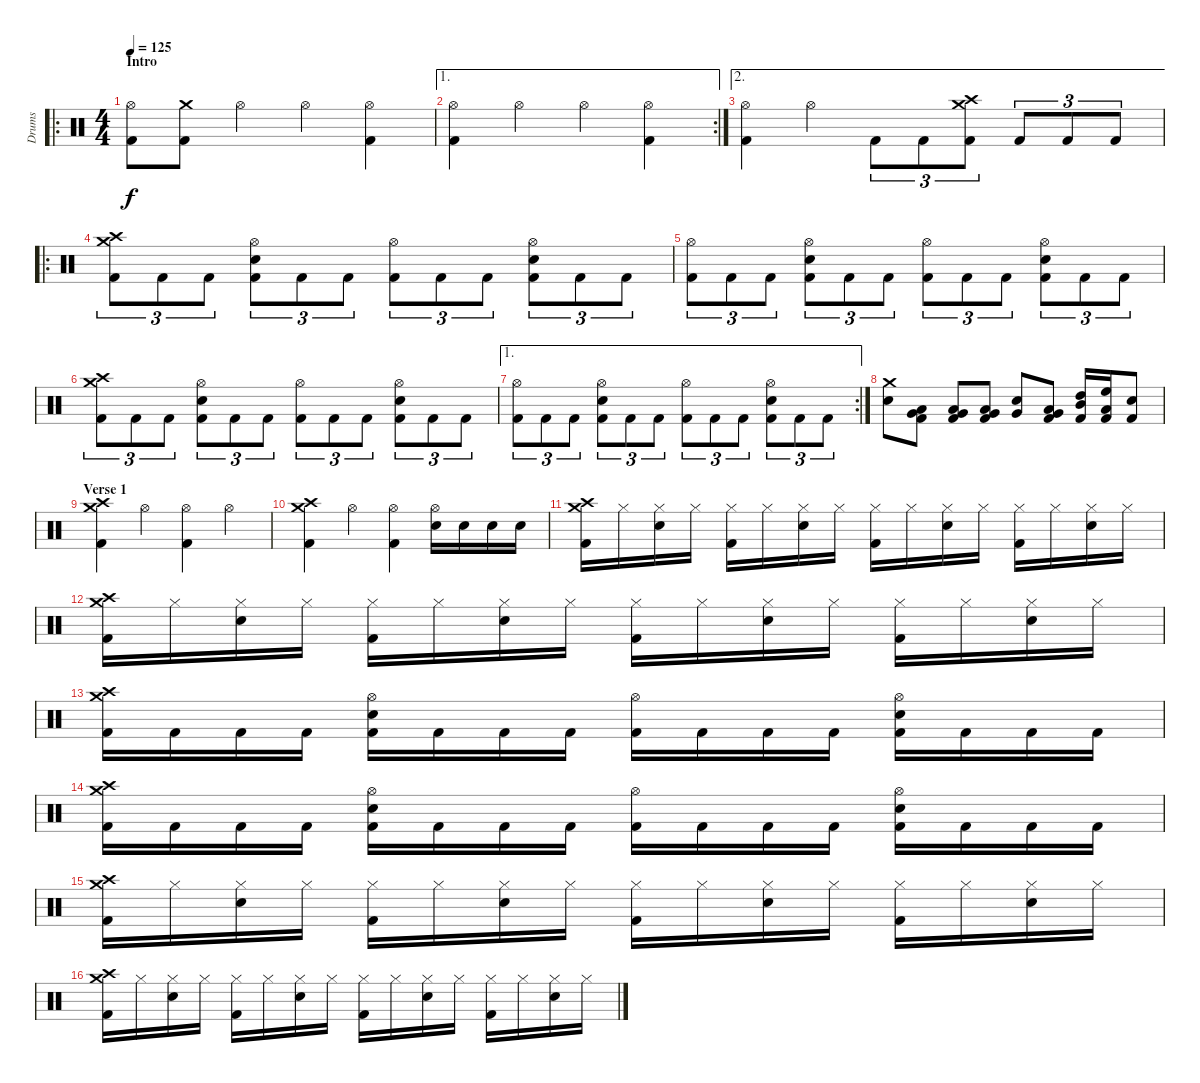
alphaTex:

\track ("Drums" "Drums") {instrument percussion}
\staff {score}
\articulation defaults
\ro
\ts (4 4)
\section ("" "Intro")
\tempo 125
\clef neutral
\ks c
("Hi-Hat (open)" "Kick (hit) 2").8{dy f} ("Crash medium (hit)" "Kick (hit) 2").8 "Hi-Hat (open)".4 "Hi-Hat (open)".4 ("Hi-Hat (open)" "Kick (hit) 2").4 |
\ae 1
\rc 2
("Hi-Hat (open)" "Kick (hit) 2").4 "Hi-Hat (open)".4 "Hi-Hat (open)".4 ("Hi-Hat (open)" "Kick (hit) 2").4 |
\ae 2
("Hi-Hat (open)" "Kick (hit) 2").4 "Hi-Hat (open)".4 "Kick (hit) 2".8{tu (3 2)} "Kick (hit) 2".8{tu (3 2)} ("Crash medium (hit)" "Crash high (hit)" "Kick (hit) 2").8{tu (3 2)} "Kick (hit) 2".8{tu (3 2)} "Kick (hit) 2".8{tu (3 2)} "Kick (hit) 2".8{tu (3 2)} |
\ro
("Crash medium (hit)" "Crash high (hit)" "Kick (hit) 2").8{tu (3 2)} "Kick (hit) 2".8{tu (3 2)} "Kick (hit) 2".8{tu (3 2)} ("Hi-Hat (open)" "Snare (hit) 2" "Kick (hit) 2").8{tu (3 2)} "Kick (hit) 2".8{tu (3 2)} "Kick (hit) 2".8{tu (3 2)} ("Hi-Hat (open)" "Kick (hit) 2").8{tu (3 2)} "Kick (hit) 2".8{tu (3 2)} "Kick (hit) 2".8{tu (3 2)} ("Hi-Hat (open)" "Snare (hit) 2" "Kick (hit) 2").8{tu (3 2)} "Kick (hit) 2".8{tu (3 2)} "Kick (hit) 2".8{tu (3 2)} |
("Hi-Hat (open)" "Kick (hit) 2").8{tu (3 2)} "Kick (hit) 2".8{tu (3 2)} "Kick (hit) 2".8{tu (3 2)} ("Hi-Hat (open)" "Snare (hit) 2" "Kick (hit) 2").8{tu (3 2)} "Kick (hit) 2".8{tu (3 2)} "Kick (hit) 2".8{tu (3 2)} ("Hi-Hat (open)" "Kick (hit) 2").8{tu (3 2)} "Kick (hit) 2".8{tu (3 2)} "Kick (hit) 2".8{tu (3 2)} ("Hi-Hat (open)" "Snare (hit) 2" "Kick (hit) 2").8{tu (3 2)} "Kick (hit) 2".8{tu (3 2)} "Kick (hit) 2".8{tu (3 2)} |
("Crash medium (hit)" "Crash high (hit)" "Kick (hit) 2").8{tu (3 2)} "Kick (hit) 2".8{tu (3 2)} "Kick (hit) 2".8{tu (3 2)} ("Hi-Hat (open)" "Snare (hit) 2" "Kick (hit) 2").8{tu (3 2)} "Kick (hit) 2".8{tu (3 2)} "Kick (hit) 2".8{tu (3 2)} ("Hi-Hat (open)" "Kick (hit) 2").8{tu (3 2)} "Kick (hit) 2".8{tu (3 2)} "Kick (hit) 2".8{tu (3 2)} ("Hi-Hat (open)" "Snare (hit) 2" "Kick (hit) 2").8{tu (3 2)} "Kick (hit) 2".8{tu (3 2)} "Kick (hit) 2".8{tu (3 2)} |
\ae 1
\rc 2
("Hi-Hat (open)" "Kick (hit) 2").8{tu (3 2)} "Kick (hit) 2".8{tu (3 2)} "Kick (hit) 2".8{tu (3 2)} ("Hi-Hat (open)" "Snare (hit) 2" "Kick (hit) 2").8{tu (3 2)} "Kick (hit) 2".8{tu (3 2)} "Kick (hit) 2".8{tu (3 2)} ("Hi-Hat (open)" "Kick (hit) 2").8{tu (3 2)} "Kick (hit) 2".8{tu (3 2)} "Kick (hit) 2".8{tu (3 2)} ("Hi-Hat (open)" "Snare (hit) 2" "Kick (hit) 2").8{tu (3 2)} "Kick (hit) 2".8{tu (3 2)} "Kick (hit) 2".8{tu (3 2)} |
("Crash medium (hit)" "Snare (hit) 2").8 ("Very Low Tom (hit)" "Low Tom (hit)" "Kick (hit) 2").8 ("Very Low Tom (hit)" "Low Tom (hit)" "Kick (hit) 2").8 ("Very Low Tom (hit)" "Low Tom (hit)" "Kick (hit) 2").8 ("Very Low Tom (hit)" "Snare (hit) 2").8 ("Very Low Tom (hit)" "Low Tom (hit)" "Kick (hit) 2").8 ("Mid Tom (hit)" "High Tom (hit)" "Kick (hit) 2").16 ("High Floor Tom (hit)" "Low Floor Tom (hit)" "Kick (hit) 2").16 ("Snare (hit) 2" "Kick (hit) 2").8 |
\section ("" "Verse 1")
("Crash medium (hit)" "Crash high (hit)" "Kick (hit) 2").4 "Hi-Hat (open)".4 ("Hi-Hat (open)" "Kick (hit) 2").4 "Hi-Hat (open)".4 |
("Crash medium (hit)" "Crash high (hit)" "Kick (hit) 2").4 "Hi-Hat (open)".4 ("Hi-Hat (open)" "Kick (hit) 2").4 ("Hi-Hat (open)" "Snare (hit) 2").16 "Snare (hit) 2".16 "Snare (hit) 2".16 "Snare (hit) 2".16 |
("Crash medium (hit)" "Crash high (hit)" "Kick (hit) 2").16 "Hi-Hat (closed)".16 ("Hi-Hat (closed)" "Snare (hit) 2").16 "Hi-Hat (closed)".16 ("Hi-Hat (closed)" "Kick (hit) 2").16 "Hi-Hat (closed)".16 ("Hi-Hat (closed)" "Snare (hit) 2").16 "Hi-Hat (closed)".16 ("Hi-Hat (closed)" "Kick (hit) 2").16 "Hi-Hat (closed)".16 ("Hi-Hat (closed)" "Snare (hit) 2").16 "Hi-Hat (closed)".16 ("Hi-Hat (closed)" "Kick (hit) 2").16 "Hi-Hat (closed)".16 ("Hi-Hat (closed)" "Snare (hit) 2").16 "Hi-Hat (closed)".16 |
("Crash medium (hit)" "Crash high (hit)" "Kick (hit) 2").16 "Hi-Hat (closed)".16 ("Hi-Hat (closed)" "Snare (hit) 2").16 "Hi-Hat (closed)".16 ("Hi-Hat (closed)" "Kick (hit) 2").16 "Hi-Hat (closed)".16 ("Hi-Hat (closed)" "Snare (hit) 2").16 "Hi-Hat (closed)".16 ("Hi-Hat (closed)" "Kick (hit) 2").16 "Hi-Hat (closed)".16 ("Hi-Hat (closed)" "Snare (hit) 2").16 "Hi-Hat (closed)".16 ("Hi-Hat (closed)" "Kick (hit) 2").16 "Hi-Hat (closed)".16 ("Hi-Hat (closed)" "Snare (hit) 2").16 "Hi-Hat (closed)".16 |
("Crash medium (hit)" "Crash high (hit)" "Kick (hit) 2").16 "Kick (hit) 2".16 "Kick (hit) 2".16 "Kick (hit) 2".16 ("Hi-Hat (open)" "Snare (hit) 2" "Kick (hit) 2").16 "Kick (hit) 2".16 "Kick (hit) 2".16 "Kick (hit) 2".16 ("Hi-Hat (open)" "Kick (hit) 2").16 "Kick (hit) 2".16 "Kick (hit) 2".16 "Kick (hit) 2".16 ("Hi-Hat (open)" "Snare (hit) 2" "Kick (hit) 2").16 "Kick (hit) 2".16 "Kick (hit) 2".16 "Kick (hit) 2".16 |
("Crash medium (hit)" "Crash high (hit)" "Kick (hit) 2").16 "Kick (hit) 2".16 "Kick (hit) 2".16 "Kick (hit) 2".16 ("Hi-Hat (open)" "Snare (hit) 2" "Kick (hit) 2").16 "Kick (hit) 2".16 "Kick (hit) 2".16 "Kick (hit) 2".16 ("Hi-Hat (open)" "Kick (hit) 2").16 "Kick (hit) 2".16 "Kick (hit) 2".16 "Kick (hit) 2".16 ("Hi-Hat (open)" "Snare (hit) 2" "Kick (hit) 2").16 "Kick (hit) 2".16 "Kick (hit) 2".16 "Kick (hit) 2".16 |
("Crash medium (hit)" "Crash high (hit)" "Kick (hit) 2").16 "Hi-Hat (closed)".16 ("Hi-Hat (closed)" "Snare (hit) 2").16 "Hi-Hat (closed)".16 ("Hi-Hat (closed)" "Kick (hit) 2").16 "Hi-Hat (closed)".16 ("Hi-Hat (closed)" "Snare (hit) 2").16 "Hi-Hat (closed)".16 ("Hi-Hat (closed)" "Kick (hit) 2").16 "Hi-Hat (closed)".16 ("Hi-Hat (closed)" "Snare (hit) 2").16 "Hi-Hat (closed)".16 ("Hi-Hat (closed)" "Kick (hit) 2").16 "Hi-Hat (closed)".16 ("Hi-Hat (closed)" "Snare (hit) 2").16 "Hi-Hat (closed)".16 |
("Crash medium (hit)" "Crash high (hit)" "Kick (hit) 2").16 "Hi-Hat (closed)".16 ("Hi-Hat (closed)" "Snare (hit) 2").16 "Hi-Hat (closed)".16 ("Hi-Hat (closed)" "Kick (hit) 2").16 "Hi-Hat (closed)".16 ("Hi-Hat (closed)" "Snare (hit) 2").16 "Hi-Hat (closed)".16 ("Hi-Hat (closed)" "Kick (hit) 2").16 "Hi-Hat (closed)".16 ("Hi-Hat (closed)" "Snare (hit) 2").16 "Hi-Hat (closed)".16 ("Hi-Hat (closed)" "Kick (hit) 2").16 "Hi-Hat (closed)".16 ("Hi-Hat (closed)" "Snare (hit) 2").16 "Hi-Hat (closed)".16
